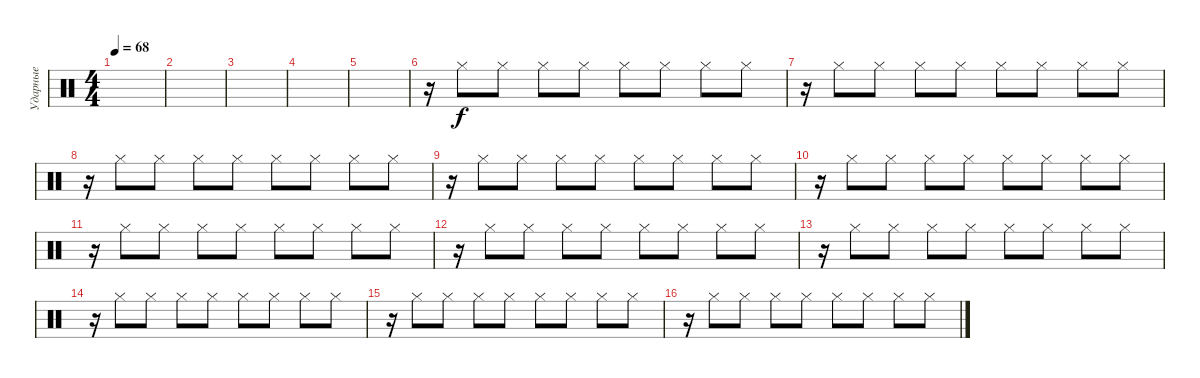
\track ("Ударные" "Ударные") {instrument percussion}
\staff {score}
\articulation defaults
\ts (4 4)
\tempo 68
\clef neutral
\ks c
|
|
|
|
|
r.16 "Hi-Hat (closed)".8 "Hi-Hat (closed)".8 "Hi-Hat (closed)".8 "Hi-Hat (closed)".8 "Hi-Hat (closed)".8 "Hi-Hat (closed)".8 "Hi-Hat (closed)".8 "Hi-Hat (closed)".8 |
r.16 "Hi-Hat (closed)".8 "Hi-Hat (closed)".8 "Hi-Hat (closed)".8 "Hi-Hat (closed)".8 "Hi-Hat (closed)".8 "Hi-Hat (closed)".8 "Hi-Hat (closed)".8 "Hi-Hat (closed)".8 |
r.16 "Hi-Hat (closed)".8 "Hi-Hat (closed)".8 "Hi-Hat (closed)".8 "Hi-Hat (closed)".8 "Hi-Hat (closed)".8 "Hi-Hat (closed)".8 "Hi-Hat (closed)".8 "Hi-Hat (closed)".8 |
r.16 "Hi-Hat (closed)".8 "Hi-Hat (closed)".8 "Hi-Hat (closed)".8 "Hi-Hat (closed)".8 "Hi-Hat (closed)".8 "Hi-Hat (closed)".8 "Hi-Hat (closed)".8 "Hi-Hat (closed)".8 |
r.16 "Hi-Hat (closed)".8 "Hi-Hat (closed)".8 "Hi-Hat (closed)".8 "Hi-Hat (closed)".8 "Hi-Hat (closed)".8 "Hi-Hat (closed)".8 "Hi-Hat (closed)".8 "Hi-Hat (closed)".8 |
r.16 "Hi-Hat (closed)".8 "Hi-Hat (closed)".8 "Hi-Hat (closed)".8 "Hi-Hat (closed)".8 "Hi-Hat (closed)".8 "Hi-Hat (closed)".8 "Hi-Hat (closed)".8 "Hi-Hat (closed)".8 |
r.16 "Hi-Hat (closed)".8 "Hi-Hat (closed)".8 "Hi-Hat (closed)".8 "Hi-Hat (closed)".8 "Hi-Hat (closed)".8 "Hi-Hat (closed)".8 "Hi-Hat (closed)".8 "Hi-Hat (closed)".8 |
r.16 "Hi-Hat (closed)".8 "Hi-Hat (closed)".8 "Hi-Hat (closed)".8 "Hi-Hat (closed)".8 "Hi-Hat (closed)".8 "Hi-Hat (closed)".8 "Hi-Hat (closed)".8 "Hi-Hat (closed)".8 |
r.16 "Hi-Hat (closed)".8 "Hi-Hat (closed)".8 "Hi-Hat (closed)".8 "Hi-Hat (closed)".8 "Hi-Hat (closed)".8 "Hi-Hat (closed)".8 "Hi-Hat (closed)".8 "Hi-Hat (closed)".8 |
r.16 "Hi-Hat (closed)".8 "Hi-Hat (closed)".8 "Hi-Hat (closed)".8 "Hi-Hat (closed)".8 "Hi-Hat (closed)".8 "Hi-Hat (closed)".8 "Hi-Hat (closed)".8 "Hi-Hat (closed)".8 |
r.16 "Hi-Hat (closed)".8 "Hi-Hat (closed)".8 "Hi-Hat (closed)".8 "Hi-Hat (closed)".8 "Hi-Hat (closed)".8 "Hi-Hat (closed)".8 "Hi-Hat (closed)".8 "Hi-Hat (closed)".8
